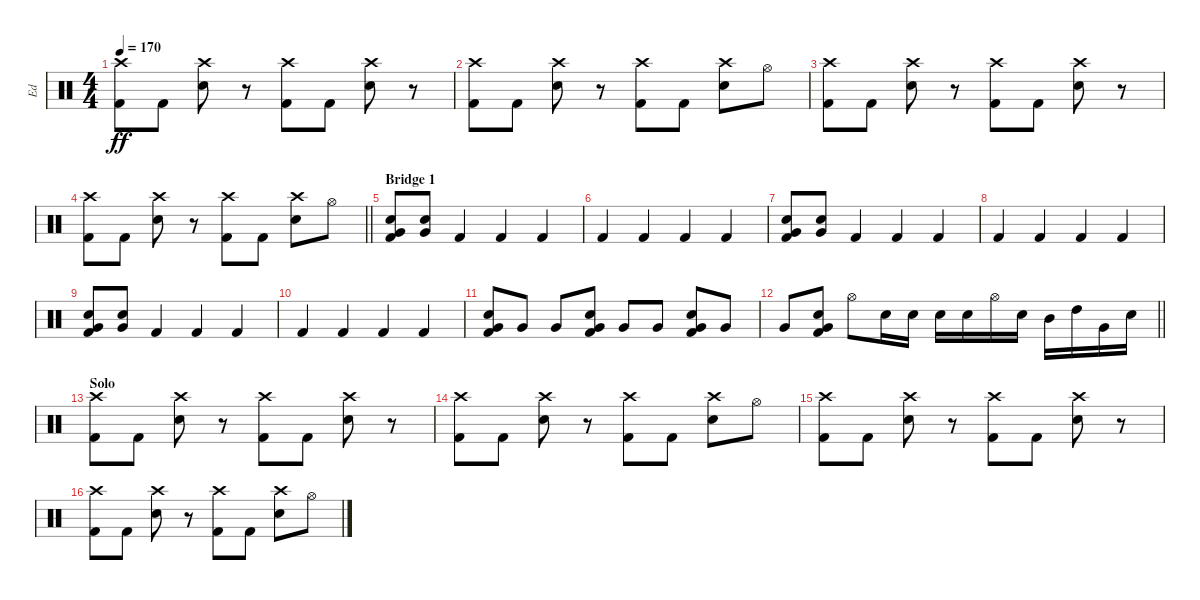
\track ("Ed" "Ed") {instrument percussion}
\staff {score}
\articulation defaults
\ts (4 4)
\tempo 170
\clef neutral
\ks c
("Kick (hit) 2" "Crash high (hit)").8{dy ff} "Kick (hit) 2".8 ("Snare (hit) 2" "Crash high (hit)").8 r.8 ("Kick (hit) 2" "Crash high (hit)").8 "Kick (hit) 2".8 ("Snare (hit) 2" "Crash high (hit)").8 r.8 |
("Kick (hit) 2" "Crash high (hit)").8 "Kick (hit) 2".8 ("Snare (hit) 2" "Crash high (hit)").8 r.8 ("Kick (hit) 2" "Crash high (hit)").8 "Kick (hit) 2".8 ("Snare (hit) 2" "Crash high (hit)").8 "Hi-Hat (open)".8 |
("Kick (hit) 2" "Crash high (hit)").8 "Kick (hit) 2".8 ("Snare (hit) 2" "Crash high (hit)").8 r.8 ("Kick (hit) 2" "Crash high (hit)").8 "Kick (hit) 2".8 ("Snare (hit) 2" "Crash high (hit)").8 r.8 |
\barLineRight lightlight
("Kick (hit) 2" "Crash high (hit)").8 "Kick (hit) 2".8 ("Snare (hit) 2" "Crash high (hit)").8 r.8 ("Kick (hit) 2" "Crash high (hit)").8 "Kick (hit) 2".8 ("Snare (hit) 2" "Crash high (hit)").8 "Hi-Hat (open)".8 |
\section ("" "Bridge 1")
("Very Low Tom (hit)" "Kick (hit) 2" "Snare (hit) 2").8 ("Very Low Tom (hit)" "Snare (hit) 2").8 "Kick (hit) 2".4 "Kick (hit) 2".4 "Kick (hit) 2".4 |
"Kick (hit) 2".4 "Kick (hit) 2".4 "Kick (hit) 2".4 "Kick (hit) 2".4 |
("Very Low Tom (hit)" "Kick (hit) 2" "Snare (hit) 2").8 ("Very Low Tom (hit)" "Snare (hit) 2").8 "Kick (hit) 2".4 "Kick (hit) 2".4 "Kick (hit) 2".4 |
"Kick (hit) 2".4 "Kick (hit) 2".4 "Kick (hit) 2".4 "Kick (hit) 2".4 |
("Very Low Tom (hit)" "Kick (hit) 2" "Snare (hit) 2").8 ("Very Low Tom (hit)" "Snare (hit) 2").8 "Kick (hit) 2".4 "Kick (hit) 2".4 "Kick (hit) 2".4 |
"Kick (hit) 2".4 "Kick (hit) 2".4 "Kick (hit) 2".4 "Kick (hit) 2".4 |
("Snare (hit) 2" "Very Low Tom (hit)" "Kick (hit) 2").8 "Very Low Tom (hit)".8 "Very Low Tom (hit)".8 ("Snare (hit) 2" "Very Low Tom (hit)" "Kick (hit) 2").8 "Very Low Tom (hit)".8 "Very Low Tom (hit)".8 ("Snare (hit) 2" "Very Low Tom (hit)" "Kick (hit) 2").8 "Very Low Tom (hit)".8 |
\barLineRight lightlight "Very Low Tom (hit)".8
("Snare (hit) 2" "Very Low Tom (hit)" "Kick (hit) 2").8 "Hi-Hat (open)".8 "Snare (hit) 2".16 "Snare (hit) 2".16 "Snare (hit) 2".16 "Snare (hit) 2".16 "Hi-Hat (open)".16 "Snare (hit) 2".16 "Mid Tom (hit)".16 "High Tom (hit)".16 "Very Low Tom (hit)".16 "Snare (hit) 2".16 |
\section ("" "Solo")
("Kick (hit) 2" "Crash high (hit)").8 "Kick (hit) 2".8 ("Snare (hit) 2" "Crash high (hit)").8 r.8 ("Kick (hit) 2" "Crash high (hit)").8 "Kick (hit) 2".8 ("Snare (hit) 2" "Crash high (hit)").8 r.8 |
("Kick (hit) 2" "Crash high (hit)").8 "Kick (hit) 2".8 ("Snare (hit) 2" "Crash high (hit)").8 r.8 ("Kick (hit) 2" "Crash high (hit)").8 "Kick (hit) 2".8 ("Snare (hit) 2" "Crash high (hit)").8 "Hi-Hat (open)".8 |
("Kick (hit) 2" "Crash high (hit)").8 "Kick (hit) 2".8 ("Snare (hit) 2" "Crash high (hit)").8 r.8 ("Kick (hit) 2" "Crash high (hit)").8 "Kick (hit) 2".8 ("Snare (hit) 2" "Crash high (hit)").8 r.8 |
("Kick (hit) 2" "Crash high (hit)").8 "Kick (hit) 2".8 ("Snare (hit) 2" "Crash high (hit)").8 r.8 ("Kick (hit) 2" "Crash high (hit)").8 "Kick (hit) 2".8 ("Snare (hit) 2" "Crash high (hit)").8 "Hi-Hat (open)".8
